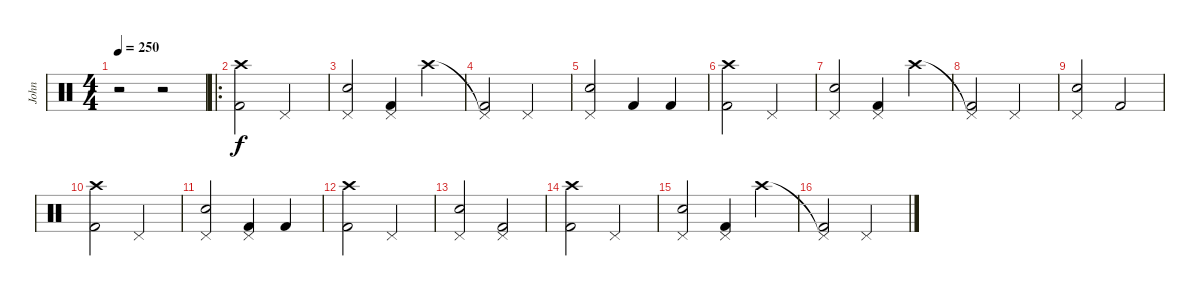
\track ("John" "John") {instrument percussion}
\staff {score}
\articulation defaults
\ts (4 4)
\tempo 250
\clef neutral
\ks c
r.2{dy f} r.2 |
\ro
("Crash high (hit)" "Kick (hit) 2").2 "Pedal Hi-Hat (hit)".2 |
("Pedal Hi-Hat (hit)" "Electric Snare (hit)").2 ("Pedal Hi-Hat (hit)" "Kick (hit) 2").4 "Crash high (hit)".4 |
("Pedal Hi-Hat (hit)"{t} "Kick (hit) 2").2 "Pedal Hi-Hat (hit)".2 |
("Pedal Hi-Hat (hit)" "Electric Snare (hit)").2 "Kick (hit) 2".4 "Kick (hit) 2".4 |
("Crash high (hit)" "Kick (hit) 2").2 "Pedal Hi-Hat (hit)".2 |
("Pedal Hi-Hat (hit)" "Electric Snare (hit)").2 ("Pedal Hi-Hat (hit)" "Kick (hit) 2").4 "Crash high (hit)".4 |
("Pedal Hi-Hat (hit)"{t} "Kick (hit) 2").2 "Pedal Hi-Hat (hit)".2 |
("Pedal Hi-Hat (hit)" "Electric Snare (hit)").2 "Kick (hit) 2".2 |
("Crash high (hit)" "Kick (hit) 2").2 "Pedal Hi-Hat (hit)".2 |
("Pedal Hi-Hat (hit)" "Electric Snare (hit)").2 ("Pedal Hi-Hat (hit)" "Kick (hit) 2").4 "Kick (hit) 2".4 |
("Crash high (hit)" "Kick (hit) 2").2 "Pedal Hi-Hat (hit)".2 |
("Pedal Hi-Hat (hit)" "Electric Snare (hit)").2 ("Pedal Hi-Hat (hit)" "Kick (hit) 2").2 |
("Crash high (hit)" "Kick (hit) 2").2 "Pedal Hi-Hat (hit)".2 |
("Pedal Hi-Hat (hit)" "Electric Snare (hit)").2 ("Pedal Hi-Hat (hit)" "Kick (hit) 2").4 "Crash high (hit)".4 |
("Pedal Hi-Hat (hit)"{t} "Kick (hit) 2").2 "Pedal Hi-Hat (hit)".2
